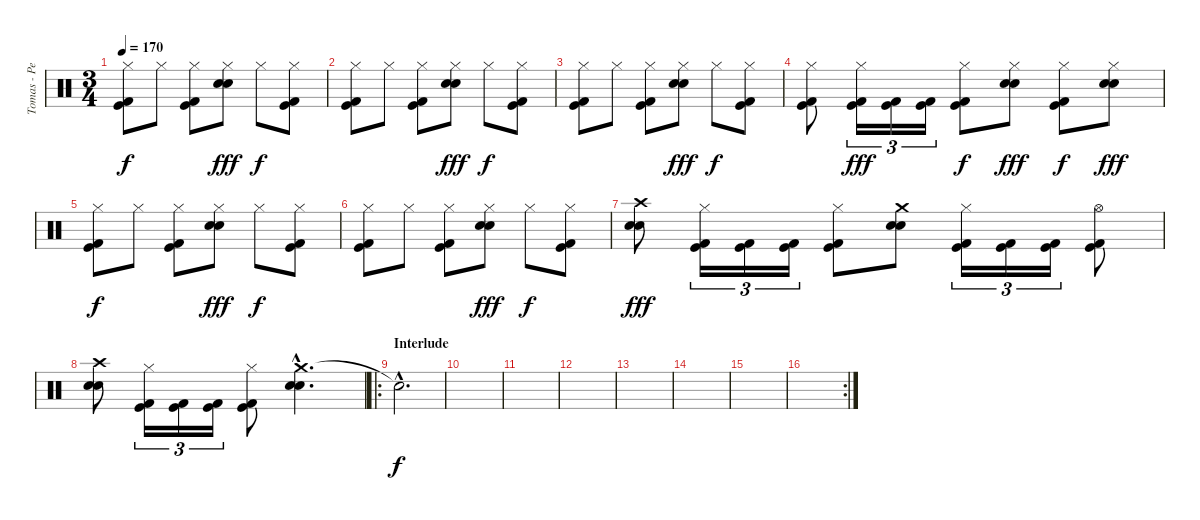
\track ("Tomas - Percussions" "Tomas - Pe") {instrument percussion}
\staff {score}
\articulation defaults
\ts (3 4)
\tempo 170
\clef neutral
\ks c
("Hi-Hat (closed)" "Kick (hit)" "Kick (hit) 2").8{dy f} "Hi-Hat (closed)".8 ("Hi-Hat (closed)" "Kick (hit)" "Kick (hit) 2").8 ("Hi-Hat (closed)" "Electric Snare (hit)" "Electric Snare (hit)").8{dy fff} "Hi-Hat (closed)".8{dy f} ("Hi-Hat (closed)" "Kick (hit)" "Kick (hit) 2").8 |
("Hi-Hat (closed)" "Kick (hit)" "Kick (hit) 2").8 "Hi-Hat (closed)".8 ("Hi-Hat (closed)" "Kick (hit)" "Kick (hit) 2").8 ("Hi-Hat (closed)" "Electric Snare (hit)" "Electric Snare (hit)").8{dy fff} "Hi-Hat (closed)".8{dy f} ("Hi-Hat (closed)" "Kick (hit)" "Kick (hit) 2").8 |
("Hi-Hat (closed)" "Kick (hit)" "Kick (hit) 2").8 "Hi-Hat (closed)".8 ("Hi-Hat (closed)" "Kick (hit)" "Kick (hit) 2").8 ("Hi-Hat (closed)" "Electric Snare (hit)" "Electric Snare (hit)").8{dy fff} "Hi-Hat (closed)".8{dy f} ("Hi-Hat (closed)" "Kick (hit)" "Kick (hit) 2").8 |
("Hi-Hat (closed)" "Kick (hit)" "Kick (hit) 2").8 ("Hi-Hat (closed)" "Kick (hit)" "Kick (hit) 2").16{tu (3 2) dy fff} ("Kick (hit)" "Kick (hit) 2").16{tu (3 2)} ("Kick (hit)" "Kick (hit) 2").16{tu (3 2)} ("Hi-Hat (closed)" "Kick (hit)" "Kick (hit) 2").8{dy f} ("Hi-Hat (closed)" "Electric Snare (hit)" "Electric Snare (hit)").8{dy fff} ("Hi-Hat (closed)" "Kick (hit)" "Kick (hit) 2").8{dy f} ("Hi-Hat (closed)" "Electric Snare (hit)" "Electric Snare (hit)").8{dy fff} |
("Hi-Hat (closed)" "Kick (hit)" "Kick (hit) 2").8{dy f} "Hi-Hat (closed)".8 ("Hi-Hat (closed)" "Kick (hit)" "Kick (hit) 2").8 ("Hi-Hat (closed)" "Electric Snare (hit)" "Electric Snare (hit)").8{dy fff} "Hi-Hat (closed)".8{dy f} ("Hi-Hat (closed)" "Kick (hit)" "Kick (hit) 2").8 |
("Hi-Hat (closed)" "Kick (hit)" "Kick (hit) 2").8 "Hi-Hat (closed)".8 ("Hi-Hat (closed)" "Kick (hit)" "Kick (hit) 2").8 ("Hi-Hat (closed)" "Electric Snare (hit)" "Electric Snare (hit)").8{dy fff} "Hi-Hat (closed)".8{dy f} ("Hi-Hat (closed)" "Kick (hit)" "Kick (hit) 2").8 |
("Crash high (hit)" "Electric Snare (hit)" "Electric Snare (hit)").8{dy fff} ("Hi-Hat (closed)" "Kick (hit)" "Kick (hit) 2").16{tu (3 2)} ("Kick (hit)" "Kick (hit) 2").16{tu (3 2)} ("Kick (hit)" "Kick (hit) 2").16{tu (3 2)} ("Hi-Hat (closed)" "Kick (hit)" "Kick (hit) 2").8 ("Crash medium (hit)" "Electric Snare (hit)" "Electric Snare (hit)").8 ("Hi-Hat (closed)" "Kick (hit)" "Kick (hit) 2").16{tu (3 2)} ("Kick (hit)" "Kick (hit) 2").16{tu (3 2)} ("Kick (hit)" "Kick (hit) 2").16{tu (3 2)} ("Hi-Hat (open)" "Kick (hit)" "Kick (hit) 2").8 |
("Crash high (hit)" "Electric Snare (hit)" "Electric Snare (hit)").8 ("Hi-Hat (closed)" "Kick (hit)" "Kick (hit) 2").16{tu (3 2)} ("Kick (hit)" "Kick (hit) 2").16{tu (3 2)} ("Kick (hit)" "Kick (hit) 2").16{tu (3 2)} ("Hi-Hat (closed)" "Kick (hit)" "Kick (hit) 2").8 ("Crash medium (hit)"{hac} "Electric Snare (hit)"{hac} "Electric Snare (hit)"{hac}).4{d} |
\ro
\section ("" "Interlude")
"Snare (hit)"{hac t}.2{d dy f} |
|
|
|
|
|
|
\rc 2
